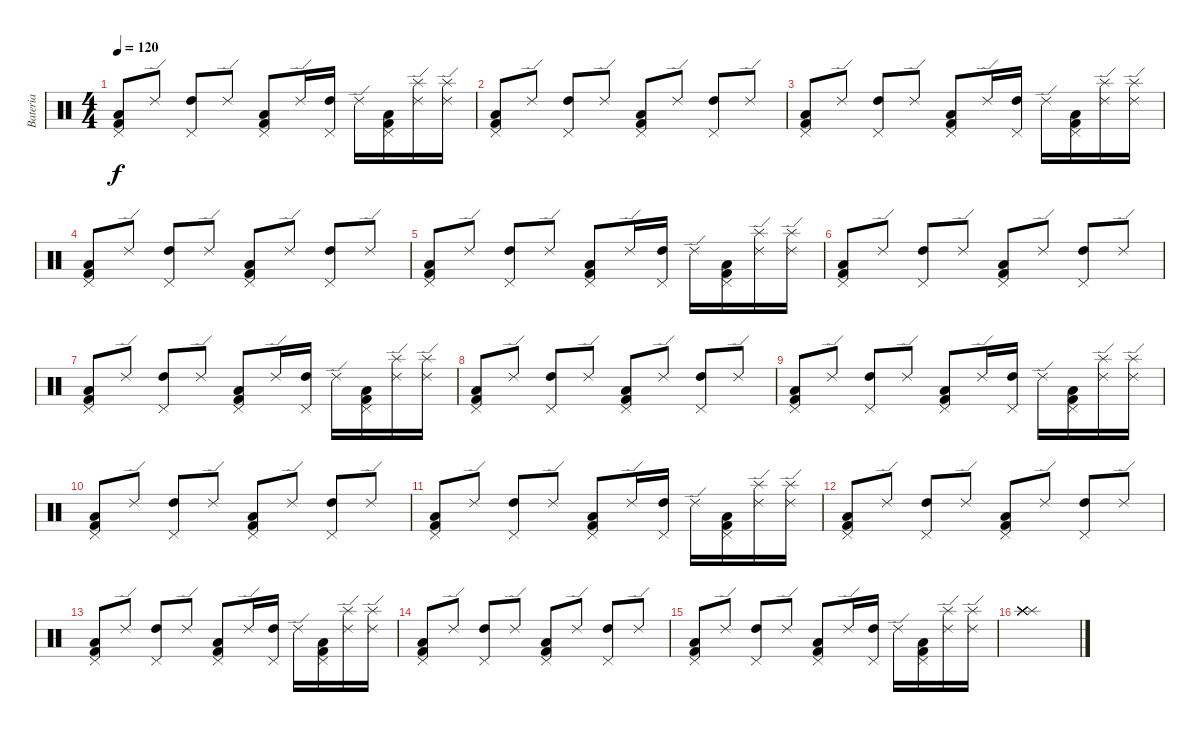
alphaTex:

\track ("Bateria" "Bateria") {instrument percussion}
\staff {score}
\articulation defaults
\ts (4 4)
\tempo 120
\clef neutral
\ks c
("Low Tom (hit)" "Kick (hit) 2" "Pedal Hi-Hat (hit)").8{dy f} "Ride (edge) 2".8 ("High Tom (hit)" "Pedal Hi-Hat (hit)").8 "Ride (edge) 2".8 ("Low Tom (hit)" "Kick (hit) 2" "Pedal Hi-Hat (hit)").8 "Ride (edge) 2".16 ("High Tom (hit)" "Pedal Hi-Hat (hit)").16 "Ride (edge) 2".16 ("Low Tom (hit)" "Kick (hit) 2" "Pedal Hi-Hat (hit)").16 ("Ride (edge) 2" "Splash (hit)").16 ("Ride (edge) 2" "Splash (hit)").16 |
("Low Tom (hit)" "Kick (hit) 2" "Pedal Hi-Hat (hit)").8 "Ride (edge) 2".8 ("High Tom (hit)" "Pedal Hi-Hat (hit)").8 "Ride (edge) 2".8 ("Low Tom (hit)" "Kick (hit) 2" "Pedal Hi-Hat (hit)").8 "Ride (edge) 2".8 ("High Tom (hit)" "Pedal Hi-Hat (hit)").8 "Ride (edge) 2".8 |
("Low Tom (hit)" "Kick (hit) 2" "Pedal Hi-Hat (hit)").8 "Ride (edge) 2".8 ("High Tom (hit)" "Pedal Hi-Hat (hit)").8 "Ride (edge) 2".8 ("Low Tom (hit)" "Kick (hit) 2" "Pedal Hi-Hat (hit)").8 "Ride (edge) 2".16 ("High Tom (hit)" "Pedal Hi-Hat (hit)").16 "Ride (edge) 2".16 ("Low Tom (hit)" "Kick (hit) 2" "Pedal Hi-Hat (hit)").16 ("Ride (edge) 2" "Splash (hit)").16 ("Ride (edge) 2" "Splash (hit)").16 |
("Low Tom (hit)" "Kick (hit) 2" "Pedal Hi-Hat (hit)").8 "Ride (edge) 2".8 ("High Tom (hit)" "Pedal Hi-Hat (hit)").8 "Ride (edge) 2".8 ("Low Tom (hit)" "Kick (hit) 2" "Pedal Hi-Hat (hit)").8 "Ride (edge) 2".8 ("High Tom (hit)" "Pedal Hi-Hat (hit)").8 "Ride (edge) 2".8 |
("Low Tom (hit)" "Kick (hit) 2" "Pedal Hi-Hat (hit)").8 "Ride (edge) 2".8 ("High Tom (hit)" "Pedal Hi-Hat (hit)").8 "Ride (edge) 2".8 ("Low Tom (hit)" "Kick (hit) 2" "Pedal Hi-Hat (hit)").8 "Ride (edge) 2".16 ("High Tom (hit)" "Pedal Hi-Hat (hit)").16 "Ride (edge) 2".16 ("Low Tom (hit)" "Kick (hit) 2" "Pedal Hi-Hat (hit)").16 ("Ride (edge) 2" "Splash (hit)").16 ("Ride (edge) 2" "Splash (hit)").16 |
("Low Tom (hit)" "Kick (hit) 2" "Pedal Hi-Hat (hit)").8 "Ride (edge) 2".8 ("High Tom (hit)" "Pedal Hi-Hat (hit)").8 "Ride (edge) 2".8 ("Low Tom (hit)" "Kick (hit) 2" "Pedal Hi-Hat (hit)").8 "Ride (edge) 2".8 ("High Tom (hit)" "Pedal Hi-Hat (hit)").8 "Ride (edge) 2".8 |
("Low Tom (hit)" "Kick (hit) 2" "Pedal Hi-Hat (hit)").8 "Ride (edge) 2".8 ("High Tom (hit)" "Pedal Hi-Hat (hit)").8 "Ride (edge) 2".8 ("Low Tom (hit)" "Kick (hit) 2" "Pedal Hi-Hat (hit)").8 "Ride (edge) 2".16 ("High Tom (hit)" "Pedal Hi-Hat (hit)").16 "Ride (edge) 2".16 ("Low Tom (hit)" "Kick (hit) 2" "Pedal Hi-Hat (hit)").16 ("Ride (edge) 2" "Splash (hit)").16 ("Ride (edge) 2" "Splash (hit)").16 |
("Low Tom (hit)" "Kick (hit) 2" "Pedal Hi-Hat (hit)").8 "Ride (edge) 2".8 ("High Tom (hit)" "Pedal Hi-Hat (hit)").8 "Ride (edge) 2".8 ("Low Tom (hit)" "Kick (hit) 2" "Pedal Hi-Hat (hit)").8 "Ride (edge) 2".8 ("High Tom (hit)" "Pedal Hi-Hat (hit)").8 "Ride (edge) 2".8 |
("Low Tom (hit)" "Kick (hit) 2" "Pedal Hi-Hat (hit)").8 "Ride (edge) 2".8 ("High Tom (hit)" "Pedal Hi-Hat (hit)").8 "Ride (edge) 2".8 ("Low Tom (hit)" "Kick (hit) 2" "Pedal Hi-Hat (hit)").8 "Ride (edge) 2".16 ("High Tom (hit)" "Pedal Hi-Hat (hit)").16 "Ride (edge) 2".16 ("Low Tom (hit)" "Kick (hit) 2" "Pedal Hi-Hat (hit)").16 ("Ride (edge) 2" "Splash (hit)").16 ("Ride (edge) 2" "Splash (hit)").16 |
("Low Tom (hit)" "Kick (hit) 2" "Pedal Hi-Hat (hit)").8 "Ride (edge) 2".8 ("High Tom (hit)" "Pedal Hi-Hat (hit)").8 "Ride (edge) 2".8 ("Low Tom (hit)" "Kick (hit) 2" "Pedal Hi-Hat (hit)").8 "Ride (edge) 2".8 ("High Tom (hit)" "Pedal Hi-Hat (hit)").8 "Ride (edge) 2".8 |
("Low Tom (hit)" "Kick (hit) 2" "Pedal Hi-Hat (hit)").8 "Ride (edge) 2".8 ("High Tom (hit)" "Pedal Hi-Hat (hit)").8 "Ride (edge) 2".8 ("Low Tom (hit)" "Kick (hit) 2" "Pedal Hi-Hat (hit)").8 "Ride (edge) 2".16 ("High Tom (hit)" "Pedal Hi-Hat (hit)").16 "Ride (edge) 2".16 ("Low Tom (hit)" "Kick (hit) 2" "Pedal Hi-Hat (hit)").16 ("Ride (edge) 2" "Splash (hit)").16 ("Ride (edge) 2" "Splash (hit)").16 |
("Low Tom (hit)" "Kick (hit) 2" "Pedal Hi-Hat (hit)").8 "Ride (edge) 2".8 ("High Tom (hit)" "Pedal Hi-Hat (hit)").8 "Ride (edge) 2".8 ("Low Tom (hit)" "Kick (hit) 2" "Pedal Hi-Hat (hit)").8 "Ride (edge) 2".8 ("High Tom (hit)" "Pedal Hi-Hat (hit)").8 "Ride (edge) 2".8 |
("Low Tom (hit)" "Kick (hit) 2" "Pedal Hi-Hat (hit)").8 "Ride (edge) 2".8 ("High Tom (hit)" "Pedal Hi-Hat (hit)").8 "Ride (edge) 2".8 ("Low Tom (hit)" "Kick (hit) 2" "Pedal Hi-Hat (hit)").8 "Ride (edge) 2".16 ("High Tom (hit)" "Pedal Hi-Hat (hit)").16 "Ride (edge) 2".16 ("Low Tom (hit)" "Kick (hit) 2" "Pedal Hi-Hat (hit)").16 ("Ride (edge) 2" "Splash (hit)").16 ("Ride (edge) 2" "Splash (hit)").16 |
("Low Tom (hit)" "Kick (hit) 2" "Pedal Hi-Hat (hit)").8 "Ride (edge) 2".8 ("High Tom (hit)" "Pedal Hi-Hat (hit)").8 "Ride (edge) 2".8 ("Low Tom (hit)" "Kick (hit) 2" "Pedal Hi-Hat (hit)").8 "Ride (edge) 2".8 ("High Tom (hit)" "Pedal Hi-Hat (hit)").8 "Ride (edge) 2".8 |
("Low Tom (hit)" "Kick (hit) 2" "Pedal Hi-Hat (hit)").8 "Ride (edge) 2".8 ("High Tom (hit)" "Pedal Hi-Hat (hit)").8 "Ride (edge) 2".8 ("Low Tom (hit)" "Kick (hit) 2" "Pedal Hi-Hat (hit)").8 "Ride (edge) 2".16 ("High Tom (hit)" "Pedal Hi-Hat (hit)").16 "Ride (edge) 2".16 ("Low Tom (hit)" "Kick (hit) 2" "Pedal Hi-Hat (hit)").16 ("Ride (edge) 2" "Splash (hit)").16 ("Ride (edge) 2" "Splash (hit)").16 |
("Splash (hit)" "Splash (hit)" "Splash (hit)" "Splash (hit)" "Splash (hit)" "Splash (hit)").1
